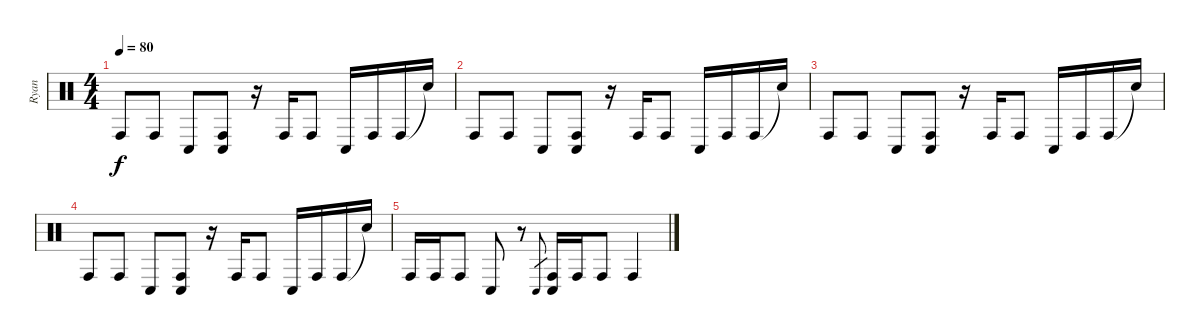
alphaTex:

\track ("Ryan" "Ryan") {instrument percussion}
\staff {score}
\articulation defaults
\ts (4 4)
\tempo 80
\clef neutral
\ks c "Conga high (hit)".8{dy f} "Conga high (hit)".8 "Conga low (hit)".8
("Conga low (hit)" "Conga high (hit)").8 r.16 "Conga high (hit)".16 "Conga high (hit)".8 "Conga low (hit)".16 "Conga high (hit)".16 "Conga high (hit)".16 "Snare (hit)"{t}.16 |
"Conga high (hit)".8 "Conga high (hit)".8 "Conga low (hit)".8 ("Conga low (hit)" "Conga high (hit)").8 r.16 "Conga high (hit)".16 "Conga high (hit)".8 "Conga low (hit)".16 "Conga high (hit)".16 "Conga high (hit)".16 "Snare (hit)"{t}.16 |
"Conga high (hit)".8 "Conga high (hit)".8 "Conga low (hit)".8 ("Conga low (hit)" "Conga high (hit)").8 r.16 "Conga high (hit)".16 "Conga high (hit)".8 "Conga low (hit)".16 "Conga high (hit)".16 "Conga high (hit)".16 "Snare (hit)"{t}.16 |
"Conga high (hit)".8 "Conga high (hit)".8 "Conga low (hit)".8 ("Conga low (hit)" "Conga high (hit)").8 r.16 "Conga high (hit)".16 "Conga high (hit)".8 "Conga low (hit)".16 "Conga high (hit)".16 "Conga high (hit)".16 "Snare (hit)"{t}.16 |
"Conga high (hit)".16 "Conga high (hit)".16 "Conga high (hit)".8 "Conga low (hit)".8 r.8 "Conga low (hit)".8{gr} ("Conga low (hit)" "Conga high (hit)").16 "Conga high (hit)".16 "Conga high (hit)".8 "Conga high (hit)".4
